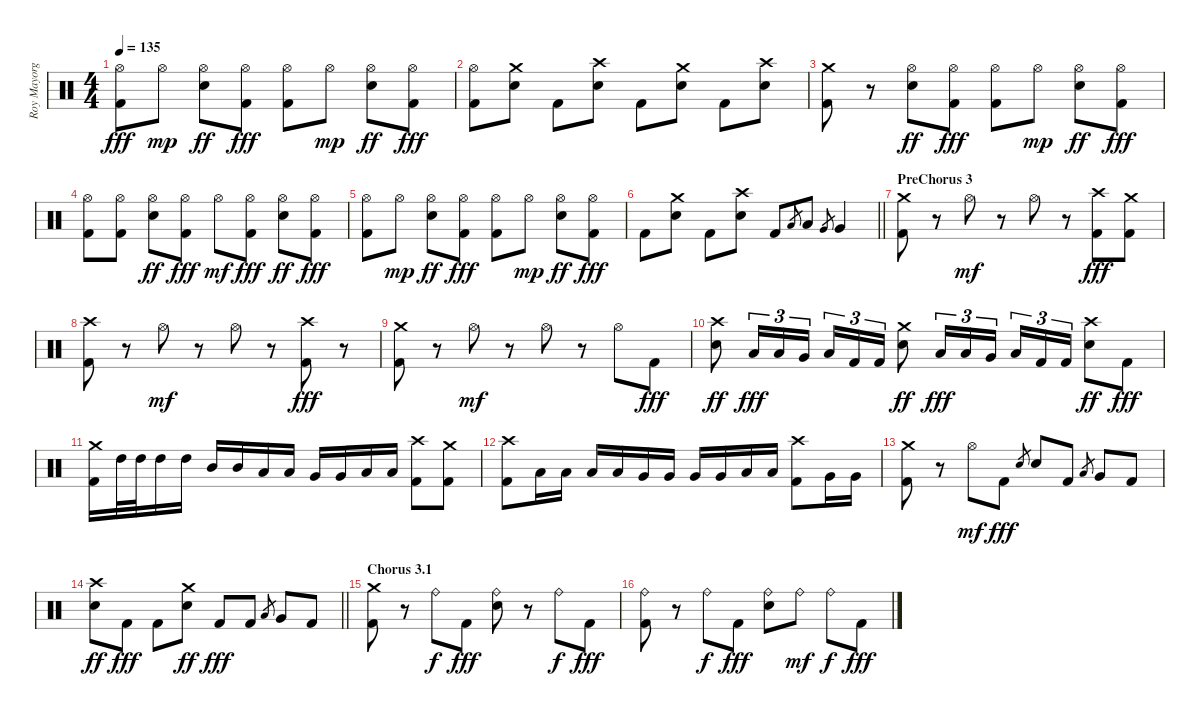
\track ("Roy Mayorga" "Roy Mayorg") {instrument percussion}
\staff {score}
\articulation defaults
\ts (4 4)
\tempo 135
\clef neutral
\ks c
("Hi-Hat (open)" "Kick (hit) 2").8{dy fff} "Hi-Hat (open)".8{dy mp} ("Hi-Hat (open)" "Electric Snare (hit)").8{dy ff} ("Hi-Hat (open)" "Kick (hit) 2").8{dy fff} ("Hi-Hat (open)" "Kick (hit) 2").8 "Hi-Hat (open)".8{dy mp} ("Hi-Hat (open)" "Electric Snare (hit)").8{dy ff} ("Hi-Hat (open)" "Kick (hit) 2").8{dy fff} |
("Hi-Hat (open)" "Kick (hit) 2").8 ("Crash medium (hit)" "Electric Snare (hit)").8 "Kick (hit) 2".8 ("Crash high (hit)" "Electric Snare (hit)").8 "Kick (hit) 2".8 ("Crash medium (hit)" "Electric Snare (hit)").8 "Kick (hit) 2".8 ("Crash high (hit)" "Electric Snare (hit)").8 |
("Crash medium (hit)" "Kick (hit) 2").8 r.8 ("Hi-Hat (open)" "Electric Snare (hit)").8{dy ff} ("Hi-Hat (open)" "Kick (hit) 2").8{dy fff} ("Hi-Hat (open)" "Kick (hit) 2").8 "Hi-Hat (open)".8{dy mp} ("Hi-Hat (open)" "Electric Snare (hit)").8{dy ff} ("Hi-Hat (open)" "Kick (hit) 2").8{dy fff} |
("Hi-Hat (open)" "Kick (hit) 2").8 ("Hi-Hat (open)" "Kick (hit) 2").8 ("Hi-Hat (open)" "Electric Snare (hit)").8{dy ff} ("Hi-Hat (open)" "Kick (hit) 2").8{dy fff} "Hi-Hat (open)".8{dy mf} ("Hi-Hat (open)" "Kick (hit) 2").8{dy fff} ("Hi-Hat (open)" "Electric Snare (hit)").8{dy ff} ("Hi-Hat (open)" "Kick (hit) 2").8{dy fff} |
("Hi-Hat (open)" "Kick (hit) 2").8 "Hi-Hat (open)".8{dy mp} ("Hi-Hat (open)" "Electric Snare (hit)").8{dy ff} ("Hi-Hat (open)" "Kick (hit) 2").8{dy fff} ("Hi-Hat (open)" "Kick (hit) 2").8 "Hi-Hat (open)".8{dy mp} ("Hi-Hat (open)" "Electric Snare (hit)").8{dy ff} ("Hi-Hat (open)" "Kick (hit) 2").8{dy fff} |
\barLineRight lightlight "Kick (hit) 2".8
("Crash medium (hit)" "Electric Snare (hit)").8 "Kick (hit) 2".8 ("Crash high (hit)" "Electric Snare (hit)").8 "Kick (hit) 2".8 "Low Tom (hit)".8{gr} "Low Tom (hit)".8 "Very Low Tom (hit)".8{gr} "Very Low Tom (hit)".4 |
\section ("" "PreChorus 3")
("Crash medium (hit)" "Kick (hit) 2").8 r.8 "Hi-Hat (open)".8{dy mf} r.8 "Hi-Hat (open)".8 r.8 ("Crash high (hit)" "Kick (hit) 2").8{dy fff} ("Crash medium (hit)" "Kick (hit) 2").8 |
("Crash high (hit)" "Kick (hit) 2").8 r.8 "Hi-Hat (open)".8{dy mf} r.8 "Hi-Hat (open)".8 r.8 ("Crash high (hit)" "Kick (hit) 2").8{dy fff} r.8 |
("Crash medium (hit)" "Kick (hit) 2").8 r.8 "Hi-Hat (open)".8{dy mf} r.8 "Hi-Hat (open)".8 r.8 "Hi-Hat (open)".8 "Kick (hit) 2".8{dy fff} |
("Crash high (hit)" "Electric Snare (hit)").8{dy ff} "Low Tom (hit)".16{tu (3 2) dy fff} "Low Tom (hit)".16{tu (3 2)} "Very Low Tom (hit)".16{tu (3 2)} "Low Floor Tom (hit)".16{tu (3 2)} "Kick (hit) 2".16{tu (3 2)} "Kick (hit) 2".16{tu (3 2)} ("Crash medium (hit)" "Electric Snare (hit)").8{dy ff} "Low Tom (hit)".16{tu (3 2) dy fff} "Low Tom (hit)".16{tu (3 2)} "Very Low Tom (hit)".16{tu (3 2) beam splitsecondary} "Low Floor Tom (hit)".16{tu (3 2)} "Kick (hit) 2".16{tu (3 2)} "Kick (hit) 2".16{tu (3 2)} ("Crash high (hit)" "Electric Snare (hit)").8{dy ff} "Kick (hit) 2".8{dy fff} |
("Crash medium (hit)" "Kick (hit) 2").16 "High Tom (hit)".32 "High Tom (hit)".32 "High Tom (hit)".16 "High Tom (hit)".16 "Mid Tom (hit)".16 "Mid Tom (hit)".16 "Low Tom (hit)".16 "Low Tom (hit)".16 "Very Low Tom (hit)".16 "Very Low Tom (hit)".16 "Low Floor Tom (hit)".16 "Low Floor Tom (hit)".16 ("Crash high (hit)" "Kick (hit) 2").8 ("Crash medium (hit)" "Kick (hit) 2").8 |
("Crash high (hit)" "Kick (hit) 2").8 "Low Tom (hit)".16 "Low Tom (hit)".16 "Low Tom (hit)".16 "Low Tom (hit)".16 "Very Low Tom (hit)".16 "Very Low Tom (hit)".16 "Very Low Tom (hit)".16 "Very Low Tom (hit)".16 "Low Floor Tom (hit)".16 "Low Floor Tom (hit)".16 ("Crash high (hit)" "Kick (hit) 2").8 "Very Low Tom (hit)".16 "Very Low Tom (hit)".16 |
("Crash medium (hit)" "Kick (hit) 2").8 r.8 "Hi-Hat (open)".8{dy mf} "Kick (hit) 2".8{dy fff} "Electric Snare (hit)".8{gr} "Electric Snare (hit)".8 "Kick (hit) 2".8 "Low Floor Tom (hit)".8{gr} "Very Low Tom (hit)".8 "Kick (hit) 2".8 |
\barLineRight lightlight
("Crash high (hit)" "Electric Snare (hit)").8{dy ff} "Kick (hit) 2".8{dy fff} "Kick (hit) 2".8 ("Crash medium (hit)" "Electric Snare (hit)").8{dy ff} "Kick (hit) 2".8{dy fff} "Kick (hit) 2".8 "Low Floor Tom (hit)".8{gr} "Very Low Tom (hit)".8 "Kick (hit) 2".8 |
\section ("" "Chorus 3.1")
("Crash medium (hit)" "Kick (hit) 2").8 r.8 "Ride (bell)".8{dy f} "Kick (hit) 2".8{dy fff} ("Ride (bell)" "Electric Snare (hit)").8 r.8 "Ride (bell)".8{dy f} "Kick (hit) 2".8{dy fff} |
("Ride (bell)" "Kick (hit) 2").8 r.8 "Ride (bell)".8{dy f} "Kick (hit) 2".8{dy fff} ("Ride (bell)" "Electric Snare (hit)").8 "Ride (bell)".8{dy mf} "Ride (bell)".8{dy f} "Kick (hit) 2".8{dy fff}
